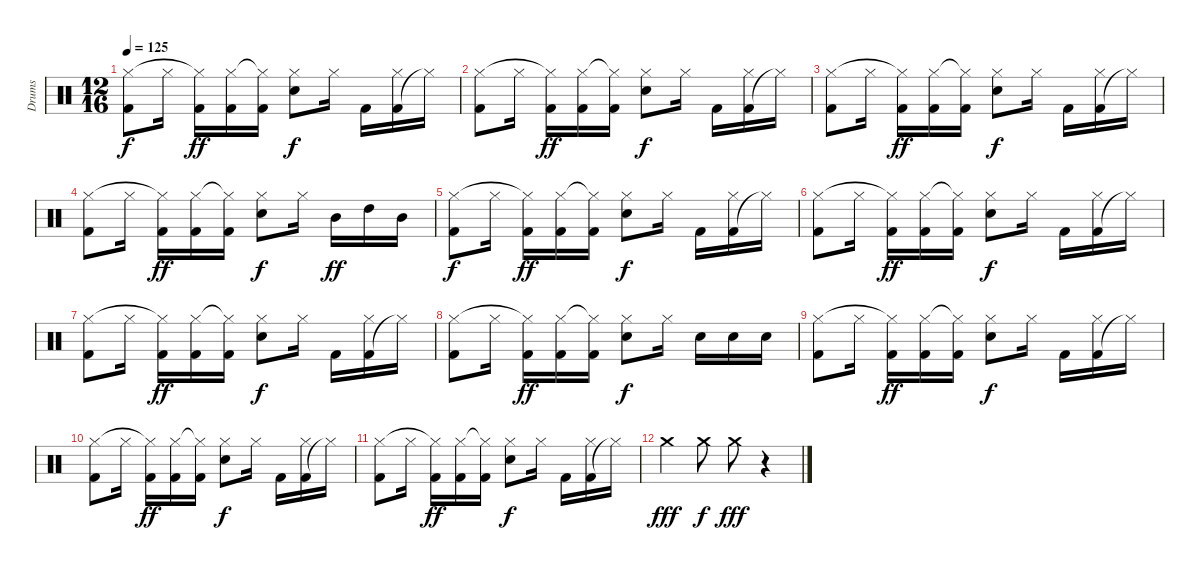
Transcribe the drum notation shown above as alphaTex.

\track ("Drums" "Drums") {instrument percussion}
\staff {score}
\articulation defaults
\ts (12 16)
\tempo 125
\clef neutral
\ks c
("Kick (hit) 2" "Hi-Hat (closed)").8{dy f} "Hi-Hat (closed)".16 ("Kick (hit) 2" "Hi-Hat (closed)"{t}).16{dy ff} ("Kick (hit) 2" "Hi-Hat (closed)").16 ("Kick (hit) 2" "Hi-Hat (closed)"{t}).16 ("Electric Snare (hit)" "Hi-Hat (closed)").8{dy f} "Hi-Hat (closed)".16 "Kick (hit) 2".16 ("Kick (hit) 2" "Hi-Hat (closed)").16 "Hi-Hat (closed)"{t}.16 |
("Kick (hit) 2" "Hi-Hat (closed)").8 "Hi-Hat (closed)".16 ("Kick (hit) 2" "Hi-Hat (closed)"{t}).16{dy ff} ("Kick (hit) 2" "Hi-Hat (closed)").16 ("Kick (hit) 2" "Hi-Hat (closed)"{t}).16 ("Electric Snare (hit)" "Hi-Hat (closed)").8{dy f} "Hi-Hat (closed)".16 "Kick (hit) 2".16 ("Kick (hit) 2" "Hi-Hat (closed)").16 "Hi-Hat (closed)"{t}.16 |
("Kick (hit) 2" "Hi-Hat (closed)").8 "Hi-Hat (closed)".16 ("Kick (hit) 2" "Hi-Hat (closed)"{t}).16{dy ff} ("Kick (hit) 2" "Hi-Hat (closed)").16 ("Kick (hit) 2" "Hi-Hat (closed)"{t}).16 ("Electric Snare (hit)" "Hi-Hat (closed)").8{dy f} "Hi-Hat (closed)".16 "Kick (hit) 2".16 ("Kick (hit) 2" "Hi-Hat (closed)").16 "Hi-Hat (closed)"{t}.16 |
("Kick (hit) 2" "Hi-Hat (closed)").8 "Hi-Hat (closed)".16 ("Kick (hit) 2" "Hi-Hat (closed)"{t}).16{dy ff} ("Kick (hit) 2" "Hi-Hat (closed)").16 ("Kick (hit) 2" "Hi-Hat (closed)"{t}).16 ("Electric Snare (hit)" "Hi-Hat (closed)").8{dy f} "Hi-Hat (closed)".16 "Mid Tom (hit)".16{dy ff} "High Tom (hit)".16 "Mid Tom (hit)".16 |
("Kick (hit) 2" "Hi-Hat (closed)").8{dy f} "Hi-Hat (closed)".16 ("Kick (hit) 2" "Hi-Hat (closed)"{t}).16{dy ff} ("Kick (hit) 2" "Hi-Hat (closed)").16 ("Kick (hit) 2" "Hi-Hat (closed)"{t}).16 ("Electric Snare (hit)" "Hi-Hat (closed)").8{dy f} "Hi-Hat (closed)".16 "Kick (hit) 2".16 ("Kick (hit) 2" "Hi-Hat (closed)").16 "Hi-Hat (closed)"{t}.16 |
("Kick (hit) 2" "Hi-Hat (closed)").8 "Hi-Hat (closed)".16 ("Kick (hit) 2" "Hi-Hat (closed)"{t}).16{dy ff} ("Kick (hit) 2" "Hi-Hat (closed)").16 ("Kick (hit) 2" "Hi-Hat (closed)"{t}).16 ("Electric Snare (hit)" "Hi-Hat (closed)").8{dy f} "Hi-Hat (closed)".16 "Kick (hit) 2".16 ("Kick (hit) 2" "Hi-Hat (closed)").16 "Hi-Hat (closed)"{t}.16 |
("Kick (hit) 2" "Hi-Hat (closed)").8 "Hi-Hat (closed)".16 ("Kick (hit) 2" "Hi-Hat (closed)"{t}).16{dy ff} ("Kick (hit) 2" "Hi-Hat (closed)").16 ("Kick (hit) 2" "Hi-Hat (closed)"{t}).16 ("Electric Snare (hit)" "Hi-Hat (closed)").8{dy f} "Hi-Hat (closed)".16 "Kick (hit) 2".16 ("Kick (hit) 2" "Hi-Hat (closed)").16 "Hi-Hat (closed)"{t}.16 |
("Kick (hit) 2" "Hi-Hat (closed)").8 "Hi-Hat (closed)".16 ("Kick (hit) 2" "Hi-Hat (closed)"{t}).16{dy ff} ("Kick (hit) 2" "Hi-Hat (closed)").16 ("Kick (hit) 2" "Hi-Hat (closed)"{t}).16 ("Electric Snare (hit)" "Hi-Hat (closed)").8{dy f} "Hi-Hat (closed)".16 "Electric Snare (hit)".16 "Electric Snare (hit)".16 "Electric Snare (hit)".16 |
("Kick (hit) 2" "Hi-Hat (closed)").8 "Hi-Hat (closed)".16 ("Kick (hit) 2" "Hi-Hat (closed)"{t}).16{dy ff} ("Kick (hit) 2" "Hi-Hat (closed)").16 ("Kick (hit) 2" "Hi-Hat (closed)"{t}).16 ("Electric Snare (hit)" "Hi-Hat (closed)").8{dy f} "Hi-Hat (closed)".16 "Kick (hit) 2".16 ("Kick (hit) 2" "Hi-Hat (closed)").16 "Hi-Hat (closed)"{t}.16 |
("Kick (hit) 2" "Hi-Hat (closed)").8 "Hi-Hat (closed)".16 ("Kick (hit) 2" "Hi-Hat (closed)"{t}).16{dy ff} ("Kick (hit) 2" "Hi-Hat (closed)").16 ("Kick (hit) 2" "Hi-Hat (closed)"{t}).16 ("Electric Snare (hit)" "Hi-Hat (closed)").8{dy f} "Hi-Hat (closed)".16 "Kick (hit) 2".16 ("Kick (hit) 2" "Hi-Hat (closed)").16 "Hi-Hat (closed)"{t}.16 |
("Kick (hit) 2" "Hi-Hat (closed)").8 "Hi-Hat (closed)".16 ("Kick (hit) 2" "Hi-Hat (closed)"{t}).16{dy ff} ("Kick (hit) 2" "Hi-Hat (closed)").16 ("Kick (hit) 2" "Hi-Hat (closed)"{t}).16 ("Electric Snare (hit)" "Hi-Hat (closed)").8{dy f} "Hi-Hat (closed)".16 "Kick (hit) 2".16 ("Kick (hit) 2" "Hi-Hat (closed)").16 "Hi-Hat (closed)"{t}.16 |
"Crash medium (hit)".4{dy fff} "Crash medium (hit)".8{dy f} "Crash medium (hit)".8{dy fff} r.4
